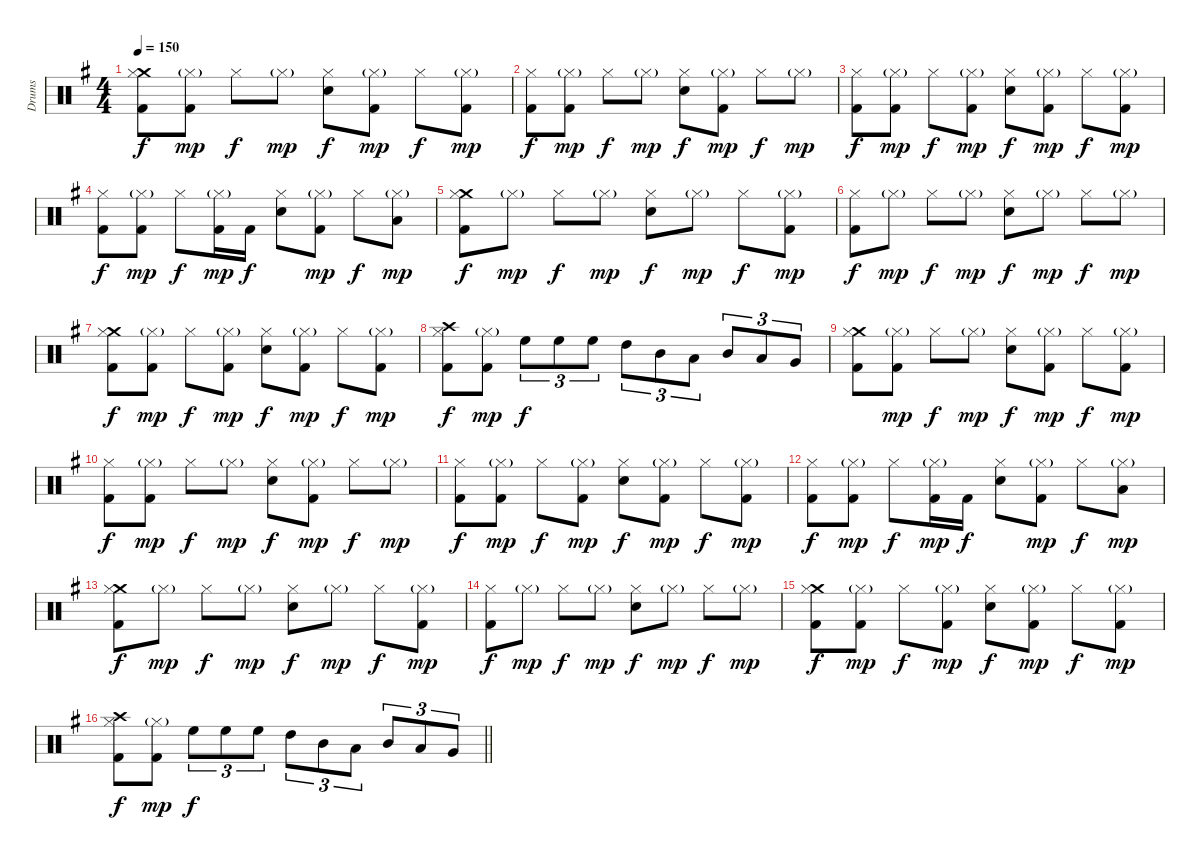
\track ("Drums" "Drums") {instrument percussion}
\staff {score}
\articulation defaults
\ts (4 4)
\section ("" "")
\tempo 150
\clef neutral
\ks eminor
("Crash medium (hit)" "Hi-Hat (closed)" "Kick (hit) 2").8{dy f} ("Hi-Hat (closed)"{g} "Kick (hit) 2").8{dy mp} "Hi-Hat (closed)".8{dy f} "Hi-Hat (closed)"{g}.8{dy mp} ("Hi-Hat (closed)" "Electric Snare (hit)").8{dy f} ("Hi-Hat (closed)"{g} "Kick (hit) 2").8{dy mp} "Hi-Hat (closed)".8{dy f} ("Hi-Hat (closed)"{g} "Kick (hit) 2").8{dy mp} |
("Hi-Hat (closed)" "Kick (hit) 2").8{dy f} ("Hi-Hat (closed)"{g} "Kick (hit) 2").8{dy mp} "Hi-Hat (closed)".8{dy f} "Hi-Hat (closed)"{g}.8{dy mp} ("Hi-Hat (closed)" "Electric Snare (hit)").8{dy f} ("Hi-Hat (closed)"{g} "Kick (hit) 2").8{dy mp} "Hi-Hat (closed)".8{dy f} "Hi-Hat (closed)"{g}.8{dy mp} |
("Hi-Hat (closed)" "Kick (hit) 2").8{dy f} ("Hi-Hat (closed)"{g} "Kick (hit) 2").8{dy mp} "Hi-Hat (closed)".8{dy f} ("Hi-Hat (closed)"{g} "Kick (hit) 2").8{dy mp} ("Hi-Hat (closed)" "Electric Snare (hit)").8{dy f} ("Hi-Hat (closed)"{g} "Kick (hit) 2").8{dy mp} "Hi-Hat (closed)".8{dy f} ("Hi-Hat (closed)"{g} "Kick (hit) 2").8{dy mp} |
("Hi-Hat (closed)" "Kick (hit) 2").8{dy f} ("Hi-Hat (closed)"{g} "Kick (hit) 2").8{dy mp} "Hi-Hat (closed)".8{dy f} ("Hi-Hat (closed)"{g} "Kick (hit) 2").16{dy mp} "Kick (hit) 2".16{dy f} ("Hi-Hat (closed)" "Electric Snare (hit)").8 ("Hi-Hat (closed)"{g} "Kick (hit) 2").8{dy mp} "Hi-Hat (closed)".8{dy f} ("Hi-Hat (closed)"{g} "Low Tom (hit)").8{dy mp} |
("Crash medium (hit)" "Hi-Hat (closed)" "Kick (hit) 2").8{dy f} "Hi-Hat (closed)"{g}.8{dy mp} "Hi-Hat (closed)".8{dy f} "Hi-Hat (closed)"{g}.8{dy mp} ("Hi-Hat (closed)" "Electric Snare (hit)").8{dy f} "Hi-Hat (closed)"{g}.8{dy mp} "Hi-Hat (closed)".8{dy f} ("Hi-Hat (closed)"{g} "Kick (hit) 2").8{dy mp} |
("Hi-Hat (closed)" "Kick (hit) 2").8{dy f} "Hi-Hat (closed)"{g}.8{dy mp} "Hi-Hat (closed)".8{dy f} "Hi-Hat (closed)"{g}.8{dy mp} ("Hi-Hat (closed)" "Electric Snare (hit)").8{dy f} "Hi-Hat (closed)"{g}.8{dy mp} "Hi-Hat (closed)".8{dy f} "Hi-Hat (closed)"{g}.8{dy mp} |
("Crash medium (hit)" "Hi-Hat (closed)" "Kick (hit) 2").8{dy f} ("Hi-Hat (closed)"{g} "Kick (hit) 2").8{dy mp} "Hi-Hat (closed)".8{dy f} ("Hi-Hat (closed)"{g} "Kick (hit) 2").8{dy mp} ("Hi-Hat (closed)" "Electric Snare (hit)").8{dy f} ("Hi-Hat (closed)"{g} "Kick (hit) 2").8{dy mp} "Hi-Hat (closed)".8{dy f} ("Hi-Hat (closed)"{g} "Kick (hit) 2").8{dy mp} |
("Crash high (hit)" "Hi-Hat (closed)" "Kick (hit) 2").8{dy f} ("Hi-Hat (closed)"{g} "Kick (hit) 2").8{dy mp} "High Floor Tom (hit)".8{tu (3 2) dy f} "High Floor Tom (hit)".8{tu (3 2)} "High Floor Tom (hit)".8{tu (3 2)} "High Tom (hit)".8{tu (3 2)} "Mid Tom (hit)".8{tu (3 2)} "Low Tom (hit)".8{tu (3 2)} "Mid Tom (hit)".8{tu (3 2)} "Low Tom (hit)".8{tu (3 2)} "Very Low Tom (hit)".8{tu (3 2)} |
("Crash medium (hit)" "Hi-Hat (closed)" "Kick (hit) 2").8 ("Hi-Hat (closed)"{g} "Kick (hit) 2").8{dy mp} "Hi-Hat (closed)".8{dy f} "Hi-Hat (closed)"{g}.8{dy mp} ("Hi-Hat (closed)" "Electric Snare (hit)").8{dy f} ("Hi-Hat (closed)"{g} "Kick (hit) 2").8{dy mp} "Hi-Hat (closed)".8{dy f} ("Hi-Hat (closed)"{g} "Kick (hit) 2").8{dy mp} |
("Hi-Hat (closed)" "Kick (hit) 2").8{dy f} ("Hi-Hat (closed)"{g} "Kick (hit) 2").8{dy mp} "Hi-Hat (closed)".8{dy f} "Hi-Hat (closed)"{g}.8{dy mp} ("Hi-Hat (closed)" "Electric Snare (hit)").8{dy f} ("Hi-Hat (closed)"{g} "Kick (hit) 2").8{dy mp} "Hi-Hat (closed)".8{dy f} "Hi-Hat (closed)"{g}.8{dy mp} |
("Hi-Hat (closed)" "Kick (hit) 2").8{dy f} ("Hi-Hat (closed)"{g} "Kick (hit) 2").8{dy mp} "Hi-Hat (closed)".8{dy f} ("Hi-Hat (closed)"{g} "Kick (hit) 2").8{dy mp} ("Hi-Hat (closed)" "Electric Snare (hit)").8{dy f} ("Hi-Hat (closed)"{g} "Kick (hit) 2").8{dy mp} "Hi-Hat (closed)".8{dy f} ("Hi-Hat (closed)"{g} "Kick (hit) 2").8{dy mp} |
("Hi-Hat (closed)" "Kick (hit) 2").8{dy f} ("Hi-Hat (closed)"{g} "Kick (hit) 2").8{dy mp} "Hi-Hat (closed)".8{dy f} ("Hi-Hat (closed)"{g} "Kick (hit) 2").16{dy mp} "Kick (hit) 2".16{dy f} ("Hi-Hat (closed)" "Electric Snare (hit)").8 ("Hi-Hat (closed)"{g} "Kick (hit) 2").8{dy mp} "Hi-Hat (closed)".8{dy f} ("Hi-Hat (closed)"{g} "Low Tom (hit)").8{dy mp} |
("Crash medium (hit)" "Hi-Hat (closed)" "Kick (hit) 2").8{dy f} "Hi-Hat (closed)"{g}.8{dy mp} "Hi-Hat (closed)".8{dy f} "Hi-Hat (closed)"{g}.8{dy mp} ("Hi-Hat (closed)" "Electric Snare (hit)").8{dy f} "Hi-Hat (closed)"{g}.8{dy mp} "Hi-Hat (closed)".8{dy f} ("Hi-Hat (closed)"{g} "Kick (hit) 2").8{dy mp} |
("Hi-Hat (closed)" "Kick (hit) 2").8{dy f} "Hi-Hat (closed)"{g}.8{dy mp} "Hi-Hat (closed)".8{dy f} "Hi-Hat (closed)"{g}.8{dy mp} ("Hi-Hat (closed)" "Electric Snare (hit)").8{dy f} "Hi-Hat (closed)"{g}.8{dy mp} "Hi-Hat (closed)".8{dy f} "Hi-Hat (closed)"{g}.8{dy mp} |
("Crash medium (hit)" "Hi-Hat (closed)" "Kick (hit) 2").8{dy f} ("Hi-Hat (closed)"{g} "Kick (hit) 2").8{dy mp} "Hi-Hat (closed)".8{dy f} ("Hi-Hat (closed)"{g} "Kick (hit) 2").8{dy mp} ("Hi-Hat (closed)" "Electric Snare (hit)").8{dy f} ("Hi-Hat (closed)"{g} "Kick (hit) 2").8{dy mp} "Hi-Hat (closed)".8{dy f} ("Hi-Hat (closed)"{g} "Kick (hit) 2").8{dy mp} |
\barLineRight lightlight
("Crash high (hit)" "Hi-Hat (closed)" "Kick (hit) 2").8{dy f} ("Hi-Hat (closed)"{g} "Kick (hit) 2").8{dy mp} "High Floor Tom (hit)".8{tu (3 2) dy f} "High Floor Tom (hit)".8{tu (3 2)} "High Floor Tom (hit)".8{tu (3 2)} "High Tom (hit)".8{tu (3 2)} "Mid Tom (hit)".8{tu (3 2)} "Low Tom (hit)".8{tu (3 2)} "Mid Tom (hit)".8{tu (3 2)} "Low Tom (hit)".8{tu (3 2)} "Very Low Tom (hit)".8{tu (3 2)}
